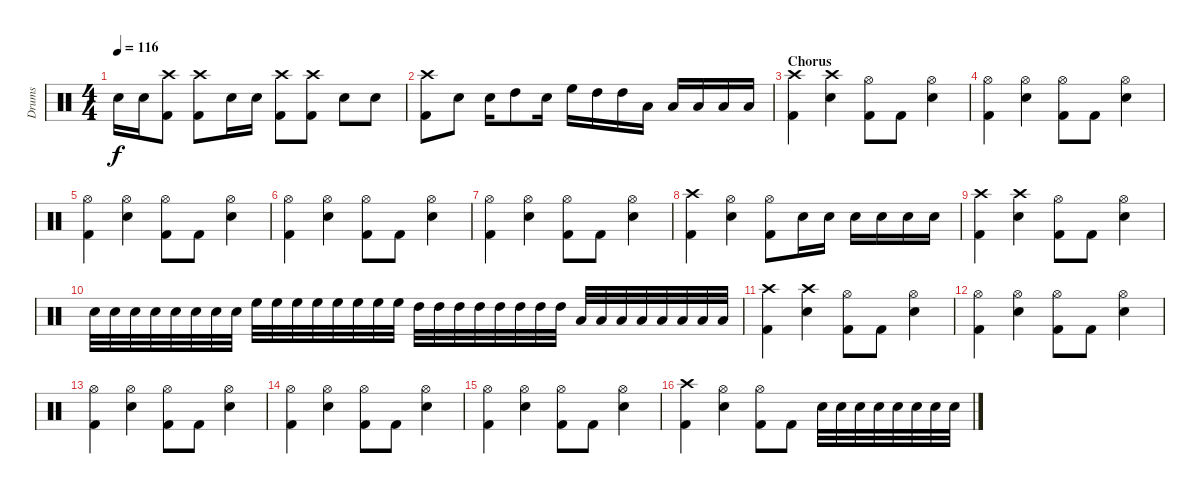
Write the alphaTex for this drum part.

\track ("Drums" "Drums") {instrument percussion}
\staff {score}
\articulation defaults
\ts (4 4)
\tempo 116
\clef neutral
\ks c "Electric Snare (hit)".16{dy f} "Electric Snare (hit)".16
("Crash high (hit)" "Kick (hit) 2").8 ("Crash high (hit)" "Kick (hit) 2").8 "Electric Snare (hit)".16 "Electric Snare (hit)".16 ("Crash high (hit)" "Kick (hit) 2").8 ("Crash high (hit)" "Kick (hit) 2").8 "Electric Snare (hit)".8 "Electric Snare (hit)".8 |
("Crash high (hit)" "Kick (hit) 2").8 "Electric Snare (hit)".8 "Electric Snare (hit)".16 "High Tom (hit)".8 "Electric Snare (hit)".16 "High Floor Tom (hit)".16 "High Tom (hit)".16 "High Tom (hit)".16 "Low Tom (hit)".16 "Low Tom (hit)".16 "Low Floor Tom (hit)".16 "Low Floor Tom (hit)".16 "Low Floor Tom (hit)".16 |
\section ("" "Chorus")
("Crash high (hit)" "Kick (hit) 2").4 ("Crash high (hit)" "Electric Snare (hit)").4 ("Hi-Hat (open)" "Kick (hit) 2").8 "Kick (hit) 2".8 ("Hi-Hat (open)" "Electric Snare (hit)").4 |
("Hi-Hat (open)" "Kick (hit) 2").4 ("Hi-Hat (open)" "Electric Snare (hit)").4 ("Hi-Hat (open)" "Kick (hit) 2").8 "Kick (hit) 2".8 ("Hi-Hat (open)" "Electric Snare (hit)").4 |
("Hi-Hat (open)" "Kick (hit) 2").4 ("Hi-Hat (open)" "Electric Snare (hit)").4 ("Hi-Hat (open)" "Kick (hit) 2").8 "Kick (hit) 2".8 ("Hi-Hat (open)" "Electric Snare (hit)").4 |
("Hi-Hat (open)" "Kick (hit) 2").4 ("Hi-Hat (open)" "Electric Snare (hit)").4 ("Hi-Hat (open)" "Kick (hit) 2").8 "Kick (hit) 2".8 ("Hi-Hat (open)" "Electric Snare (hit)").4 |
("Hi-Hat (open)" "Kick (hit) 2").4 ("Hi-Hat (open)" "Electric Snare (hit)").4 ("Hi-Hat (open)" "Kick (hit) 2").8 "Kick (hit) 2".8 ("Hi-Hat (open)" "Electric Snare (hit)").4 |
("Crash high (hit)" "Kick (hit) 2").4 ("Hi-Hat (open)" "Electric Snare (hit)").4 ("Hi-Hat (open)" "Kick (hit) 2").8 "Electric Snare (hit)".16 "Electric Snare (hit)".16 "Electric Snare (hit)".16 "Electric Snare (hit)".16 "Electric Snare (hit)".16 "Electric Snare (hit)".16 |
("Crash high (hit)" "Kick (hit) 2").4 ("Crash high (hit)" "Electric Snare (hit)").4 ("Hi-Hat (open)" "Kick (hit) 2").8 "Kick (hit) 2".8 ("Hi-Hat (open)" "Electric Snare (hit)").4 |
"Electric Snare (hit)".32 "Electric Snare (hit)".32 "Electric Snare (hit)".32 "Electric Snare (hit)".32 "Electric Snare (hit)".32 "Electric Snare (hit)".32 "Electric Snare (hit)".32 "Electric Snare (hit)".32 "High Floor Tom (hit)".32 "High Floor Tom (hit)".32 "High Floor Tom (hit)".32 "High Floor Tom (hit)".32 "High Floor Tom (hit)".32 "High Floor Tom (hit)".32 "High Floor Tom (hit)".32 "High Floor Tom (hit)".32 "High Tom (hit)".32 "High Tom (hit)".32 "High Tom (hit)".32 "High Tom (hit)".32 "High Tom (hit)".32 "High Tom (hit)".32 "High Tom (hit)".32 "High Tom (hit)".32 "Low Tom (hit)".32 "Low Tom (hit)".32 "Low Tom (hit)".32 "Low Tom (hit)".32 "Low Floor Tom (hit)".32 "Low Floor Tom (hit)".32 "Low Floor Tom (hit)".32 "Low Floor Tom (hit)".32 |
("Crash high (hit)" "Kick (hit) 2").4 ("Crash high (hit)" "Electric Snare (hit)").4 ("Hi-Hat (open)" "Kick (hit) 2").8 "Kick (hit) 2".8 ("Hi-Hat (open)" "Electric Snare (hit)").4 |
("Hi-Hat (open)" "Kick (hit) 2").4 ("Hi-Hat (open)" "Electric Snare (hit)").4 ("Hi-Hat (open)" "Kick (hit) 2").8 "Kick (hit) 2".8 ("Hi-Hat (open)" "Electric Snare (hit)").4 |
("Hi-Hat (open)" "Kick (hit) 2").4 ("Hi-Hat (open)" "Electric Snare (hit)").4 ("Hi-Hat (open)" "Kick (hit) 2").8 "Kick (hit) 2".8 ("Hi-Hat (open)" "Electric Snare (hit)").4 |
("Hi-Hat (open)" "Kick (hit) 2").4 ("Hi-Hat (open)" "Electric Snare (hit)").4 ("Hi-Hat (open)" "Kick (hit) 2").8 "Kick (hit) 2".8 ("Hi-Hat (open)" "Electric Snare (hit)").4 |
("Hi-Hat (open)" "Kick (hit) 2").4 ("Hi-Hat (open)" "Electric Snare (hit)").4 ("Hi-Hat (open)" "Kick (hit) 2").8 "Kick (hit) 2".8 ("Hi-Hat (open)" "Electric Snare (hit)").4 |
("Crash high (hit)" "Kick (hit) 2").4 ("Hi-Hat (open)" "Electric Snare (hit)").4 ("Hi-Hat (open)" "Kick (hit) 2").8 "Kick (hit) 2".8 "Electric Snare (hit)".32 "Electric Snare (hit)".32 "Electric Snare (hit)".32 "Electric Snare (hit)".32 "Electric Snare (hit)".32 "Electric Snare (hit)".32 "Electric Snare (hit)".32 "Electric Snare (hit)".32
